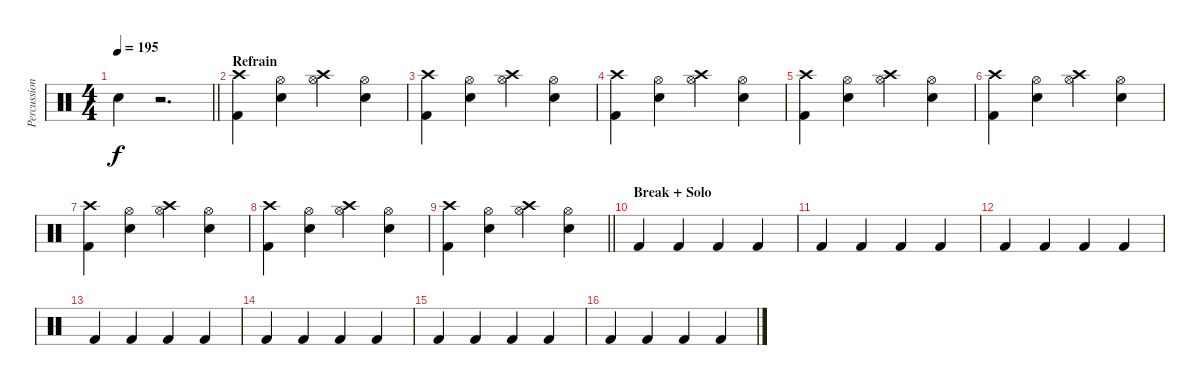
\track ("Percussions" "Percussion") {instrument percussion}
\staff {score}
\articulation defaults
\ts (4 4)
\tempo 195
\clef neutral
\barLineRight lightlight
\ks c "Electric Snare (hit)".4{dy f}
r.2{d} |
\section ("" "Refrain")
("Crash high (hit)" "Kick (hit) 2").4 ("Hi-Hat (open)" "Electric Snare (hit)").4 ("Crash high (hit)" "Hi-Hat (open)").4 ("Hi-Hat (open)" "Electric Snare (hit)").4 |
("Crash high (hit)" "Kick (hit) 2").4 ("Hi-Hat (open)" "Electric Snare (hit)").4 ("Crash high (hit)" "Hi-Hat (open)").4 ("Hi-Hat (open)" "Electric Snare (hit)").4 |
("Crash high (hit)" "Kick (hit) 2").4 ("Hi-Hat (open)" "Electric Snare (hit)").4 ("Crash high (hit)" "Hi-Hat (open)").4 ("Hi-Hat (open)" "Electric Snare (hit)").4 |
("Crash high (hit)" "Kick (hit) 2").4 ("Hi-Hat (open)" "Electric Snare (hit)").4 ("Crash high (hit)" "Hi-Hat (open)").4 ("Hi-Hat (open)" "Electric Snare (hit)").4 |
("Crash high (hit)" "Kick (hit) 2").4 ("Hi-Hat (open)" "Electric Snare (hit)").4 ("Crash high (hit)" "Hi-Hat (open)").4 ("Hi-Hat (open)" "Electric Snare (hit)").4 |
("Crash high (hit)" "Kick (hit) 2").4 ("Hi-Hat (open)" "Electric Snare (hit)").4 ("Crash high (hit)" "Hi-Hat (open)").4 ("Hi-Hat (open)" "Electric Snare (hit)").4 |
("Crash high (hit)" "Kick (hit) 2").4 ("Hi-Hat (open)" "Electric Snare (hit)").4 ("Crash high (hit)" "Hi-Hat (open)").4 ("Hi-Hat (open)" "Electric Snare (hit)").4 |
\barLineRight lightlight
("Crash high (hit)" "Kick (hit) 2").4 ("Hi-Hat (open)" "Electric Snare (hit)").4 ("Crash high (hit)" "Hi-Hat (open)").4 ("Hi-Hat (open)" "Electric Snare (hit)").4 |
\section ("" "Break + Solo")
"Kick (hit) 2".4 "Kick (hit) 2".4 "Kick (hit) 2".4 "Kick (hit) 2".4 |
"Kick (hit) 2".4 "Kick (hit) 2".4 "Kick (hit) 2".4 "Kick (hit) 2".4 |
"Kick (hit) 2".4 "Kick (hit) 2".4 "Kick (hit) 2".4 "Kick (hit) 2".4 |
"Kick (hit) 2".4 "Kick (hit) 2".4 "Kick (hit) 2".4 "Kick (hit) 2".4 |
"Kick (hit) 2".4 "Kick (hit) 2".4 "Kick (hit) 2".4 "Kick (hit) 2".4 |
"Kick (hit) 2".4 "Kick (hit) 2".4 "Kick (hit) 2".4 "Kick (hit) 2".4 |
"Kick (hit) 2".4 "Kick (hit) 2".4 "Kick (hit) 2".4 "Kick (hit) 2".4
